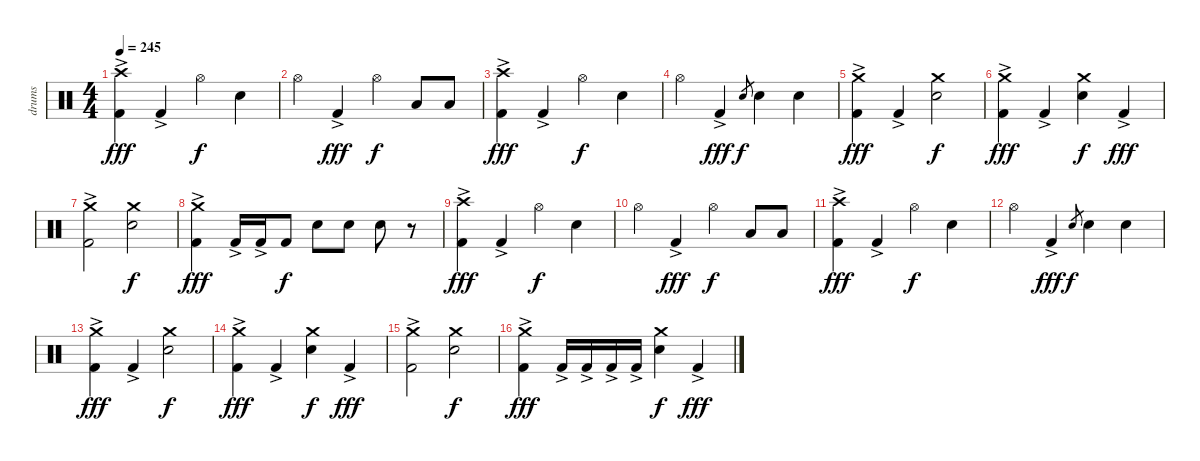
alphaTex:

\track ("drums" "drums") {instrument percussion}
\staff {score}
\articulation defaults
\ts (4 4)
\tempo 245
\clef neutral
\ks c
("Crash high (hit)" "Kick (hit) 2"{ac}).4{dy fff} "Kick (hit) 2"{ac}.4 "Hi-Hat (open)".4{dy f} "Electric Snare (hit)".4 |
"Hi-Hat (open)".4 "Kick (hit) 2"{ac}.4{dy fff} "Hi-Hat (open)".4{dy f} "Low Tom (hit)".8 "Low Tom (hit)".8 |
("Crash high (hit)" "Kick (hit) 2"{ac}).4{dy fff} "Kick (hit) 2"{ac}.4 "Hi-Hat (open)".4{dy f} "Electric Snare (hit)".4 |
"Hi-Hat (open)".4 "Kick (hit) 2"{ac}.4{dy fff} "Electric Snare (hit)".8{gr dy f} "Electric Snare (hit)".4 "Electric Snare (hit)".4 |
("Crash medium (hit)" "Kick (hit) 2"{ac}).4{dy fff} "Kick (hit) 2"{ac}.4 ("Crash medium (hit)" "Electric Snare (hit)").2{dy f} |
("Crash medium (hit)" "Kick (hit) 2"{ac}).4{dy fff} "Kick (hit) 2"{ac}.4 ("Crash medium (hit)" "Electric Snare (hit)").4{dy f} "Kick (hit) 2"{ac}.4{dy fff} |
("Crash medium (hit)" "Kick (hit) 2"{ac}).2 ("Crash medium (hit)" "Electric Snare (hit)").2{dy f} |
("Crash medium (hit)" "Kick (hit) 2"{ac}).4{dy fff} "Kick (hit) 2"{ac}.16 "Kick (hit) 2"{ac}.16 "Kick (hit) 2".8{dy f} "Electric Snare (hit)".8 "Electric Snare (hit)".8 "Electric Snare (hit)".8 r.8 |
("Crash high (hit)" "Kick (hit) 2"{ac}).4{dy fff} "Kick (hit) 2"{ac}.4 "Hi-Hat (open)".4{dy f} "Electric Snare (hit)".4 |
"Hi-Hat (open)".4 "Kick (hit) 2"{ac}.4{dy fff} "Hi-Hat (open)".4{dy f} "Low Tom (hit)".8 "Low Tom (hit)".8 |
("Crash high (hit)" "Kick (hit) 2"{ac}).4{dy fff} "Kick (hit) 2"{ac}.4 "Hi-Hat (open)".4{dy f} "Electric Snare (hit)".4 |
"Hi-Hat (open)".4 "Kick (hit) 2"{ac}.4{dy fff} "Electric Snare (hit)".8{gr dy f} "Electric Snare (hit)".4 "Electric Snare (hit)".4 |
("Crash medium (hit)" "Kick (hit) 2"{ac}).4{dy fff} "Kick (hit) 2"{ac}.4 ("Crash medium (hit)" "Electric Snare (hit)").2{dy f} |
("Crash medium (hit)" "Kick (hit) 2"{ac}).4{dy fff} "Kick (hit) 2"{ac}.4 ("Crash medium (hit)" "Electric Snare (hit)").4{dy f} "Kick (hit) 2"{ac}.4{dy fff} |
("Crash medium (hit)" "Kick (hit) 2"{ac}).2 ("Crash medium (hit)" "Electric Snare (hit)").2{dy f} |
("Crash medium (hit)" "Kick (hit) 2"{ac}).4{dy fff} "Kick (hit) 2"{ac}.16 "Kick (hit) 2"{ac}.16 "Kick (hit) 2"{ac}.16 "Kick (hit) 2"{ac}.16 ("Crash medium (hit)" "Electric Snare (hit)").4{dy f} "Kick (hit) 2"{ac}.4{dy fff}
